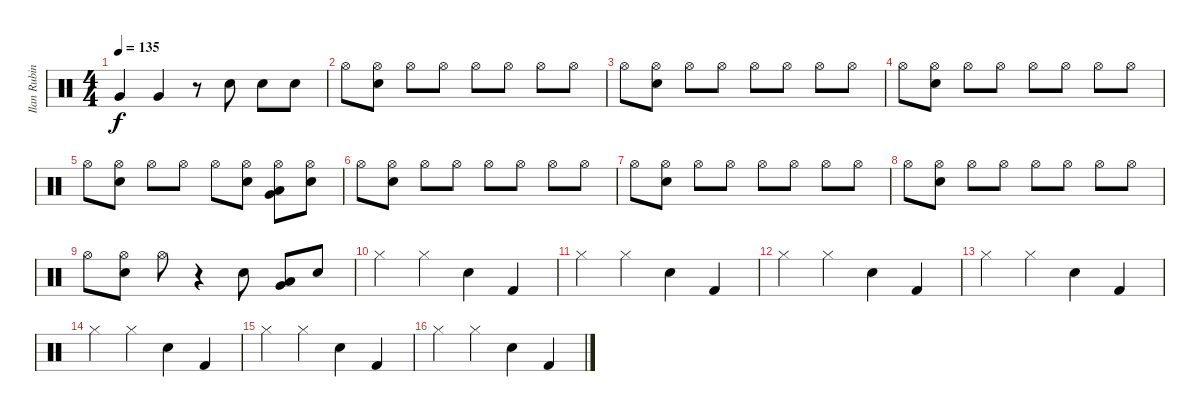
\track ("Ilan Rubin" "Ilan Rubin") {instrument percussion}
\staff {score}
\articulation defaults
\ts (4 4)
\tempo 135
\clef neutral
\ks c "Very Low Tom (hit)".4{dy f} "Very Low Tom (hit)".4
r.8 "Electric Snare (hit)".8 "Electric Snare (hit)".8 "Electric Snare (hit)".8 |
"Hi-Hat (open)".8 ("Hi-Hat (open)" "Electric Snare (hit)").8 "Hi-Hat (open)".8 "Hi-Hat (open)".8 "Hi-Hat (open)".8 "Hi-Hat (open)".8 "Hi-Hat (open)".8 "Hi-Hat (open)".8 |
"Hi-Hat (open)".8 ("Hi-Hat (open)" "Electric Snare (hit)").8 "Hi-Hat (open)".8 "Hi-Hat (open)".8 "Hi-Hat (open)".8 "Hi-Hat (open)".8 "Hi-Hat (open)".8 "Hi-Hat (open)".8 |
"Hi-Hat (open)".8 ("Hi-Hat (open)" "Electric Snare (hit)").8 "Hi-Hat (open)".8 "Hi-Hat (open)".8 "Hi-Hat (open)".8 "Hi-Hat (open)".8 "Hi-Hat (open)".8 "Hi-Hat (open)".8 |
"Hi-Hat (open)".8 ("Hi-Hat (open)" "Electric Snare (hit)").8 "Hi-Hat (open)".8 "Hi-Hat (open)".8 "Hi-Hat (open)".8 ("Hi-Hat (open)" "Electric Snare (hit)").8 ("Hi-Hat (open)" "Very Low Tom (hit)" "Low Tom (hit)").8 ("Hi-Hat (open)" "Electric Snare (hit)").8 |
"Hi-Hat (open)".8 ("Hi-Hat (open)" "Electric Snare (hit)").8 "Hi-Hat (open)".8 "Hi-Hat (open)".8 "Hi-Hat (open)".8 "Hi-Hat (open)".8 "Hi-Hat (open)".8 "Hi-Hat (open)".8 |
"Hi-Hat (open)".8 ("Hi-Hat (open)" "Electric Snare (hit)").8 "Hi-Hat (open)".8 "Hi-Hat (open)".8 "Hi-Hat (open)".8 "Hi-Hat (open)".8 "Hi-Hat (open)".8 "Hi-Hat (open)".8 |
"Hi-Hat (open)".8 ("Hi-Hat (open)" "Electric Snare (hit)").8 "Hi-Hat (open)".8 "Hi-Hat (open)".8 "Hi-Hat (open)".8 "Hi-Hat (open)".8 "Hi-Hat (open)".8 "Hi-Hat (open)".8 |
"Hi-Hat (open)".8 ("Hi-Hat (open)" "Electric Snare (hit)").8 "Hi-Hat (open)".8 r.4 "Electric Snare (hit)".8 ("Very Low Tom (hit)" "Low Tom (hit)").8 "Electric Snare (hit)".8 |
"Hi-Hat (closed)".4 "Hi-Hat (closed)".4 "Snare (hit) 2".4 "Kick (hit) 2".4 |
"Hi-Hat (closed)".4 "Hi-Hat (closed)".4 "Electric Snare (hit)".4 "Kick (hit) 2".4 |
"Hi-Hat (closed)".4 "Hi-Hat (closed)".4 "Snare (hit) 2".4 "Kick (hit) 2".4 |
"Hi-Hat (closed)".4 "Hi-Hat (closed)".4 "Electric Snare (hit)".4 "Kick (hit) 2".4 |
"Hi-Hat (closed)".4 "Hi-Hat (closed)".4 "Snare (hit) 2".4 "Kick (hit) 2".4 |
"Hi-Hat (closed)".4 "Hi-Hat (closed)".4 "Electric Snare (hit)".4 "Kick (hit) 2".4 |
"Hi-Hat (closed)".4 "Hi-Hat (closed)".4 "Snare (hit) 2".4 "Kick (hit) 2".4
